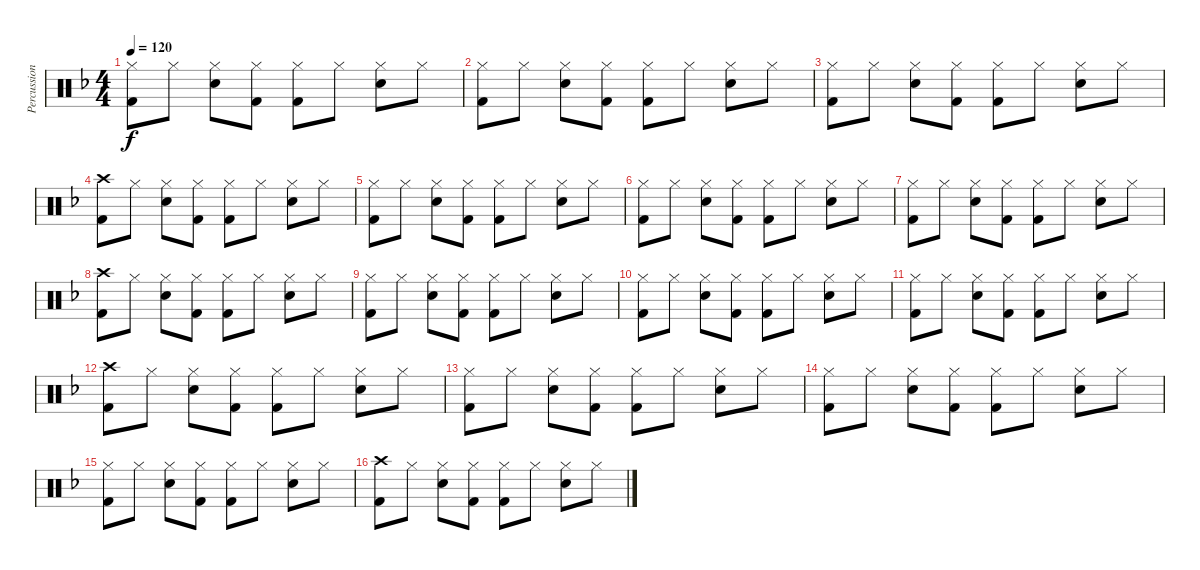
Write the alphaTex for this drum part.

\track ("Percussion" "Percussion") {instrument percussion}
\staff {score}
\articulation defaults
\ts (4 4)
\tempo 120
\clef neutral
\ks f
("Hi-Hat (closed)" "Kick (hit) 2").8{dy f} "Hi-Hat (closed)".8 ("Hi-Hat (closed)" "Snare (hit) 2").8 ("Hi-Hat (closed)" "Kick (hit) 2").8 ("Hi-Hat (closed)" "Kick (hit) 2").8 "Hi-Hat (closed)".8 ("Hi-Hat (closed)" "Snare (hit) 2").8 "Hi-Hat (closed)".8 |
("Hi-Hat (closed)" "Kick (hit) 2").8 "Hi-Hat (closed)".8 ("Hi-Hat (closed)" "Snare (hit) 2").8 ("Hi-Hat (closed)" "Kick (hit) 2").8 ("Hi-Hat (closed)" "Kick (hit) 2").8 "Hi-Hat (closed)".8 ("Hi-Hat (closed)" "Snare (hit) 2").8 "Hi-Hat (closed)".8 |
("Hi-Hat (closed)" "Kick (hit) 2").8 "Hi-Hat (closed)".8 ("Hi-Hat (closed)" "Snare (hit) 2").8 ("Hi-Hat (closed)" "Kick (hit) 2").8 ("Hi-Hat (closed)" "Kick (hit) 2").8 "Hi-Hat (closed)".8 ("Hi-Hat (closed)" "Snare (hit) 2").8 "Hi-Hat (closed)".8 |
("Crash high (hit)" "Kick (hit) 2").8 "Hi-Hat (closed)".8 ("Hi-Hat (closed)" "Snare (hit) 2").8 ("Hi-Hat (closed)" "Kick (hit) 2").8 ("Hi-Hat (closed)" "Kick (hit) 2").8 "Hi-Hat (closed)".8 ("Hi-Hat (closed)" "Snare (hit) 2").8 "Hi-Hat (closed)".8 |
("Hi-Hat (closed)" "Kick (hit) 2").8 "Hi-Hat (closed)".8 ("Hi-Hat (closed)" "Snare (hit) 2").8 ("Hi-Hat (closed)" "Kick (hit) 2").8 ("Hi-Hat (closed)" "Kick (hit) 2").8 "Hi-Hat (closed)".8 ("Hi-Hat (closed)" "Snare (hit) 2").8 "Hi-Hat (closed)".8 |
("Hi-Hat (closed)" "Kick (hit) 2").8 "Hi-Hat (closed)".8 ("Hi-Hat (closed)" "Snare (hit) 2").8 ("Hi-Hat (closed)" "Kick (hit) 2").8 ("Hi-Hat (closed)" "Kick (hit) 2").8 "Hi-Hat (closed)".8 ("Hi-Hat (closed)" "Snare (hit) 2").8 "Hi-Hat (closed)".8 |
("Hi-Hat (closed)" "Kick (hit) 2").8 "Hi-Hat (closed)".8 ("Hi-Hat (closed)" "Snare (hit) 2").8 ("Hi-Hat (closed)" "Kick (hit) 2").8 ("Hi-Hat (closed)" "Kick (hit) 2").8 "Hi-Hat (closed)".8 ("Hi-Hat (closed)" "Snare (hit) 2").8 "Hi-Hat (closed)".8 |
("Crash high (hit)" "Kick (hit) 2").8 "Hi-Hat (closed)".8 ("Hi-Hat (closed)" "Snare (hit) 2").8 ("Hi-Hat (closed)" "Kick (hit) 2").8 ("Hi-Hat (closed)" "Kick (hit) 2").8 "Hi-Hat (closed)".8 ("Hi-Hat (closed)" "Snare (hit) 2").8 "Hi-Hat (closed)".8 |
("Hi-Hat (closed)" "Kick (hit) 2").8 "Hi-Hat (closed)".8 ("Hi-Hat (closed)" "Snare (hit) 2").8 ("Hi-Hat (closed)" "Kick (hit) 2").8 ("Hi-Hat (closed)" "Kick (hit) 2").8 "Hi-Hat (closed)".8 ("Hi-Hat (closed)" "Snare (hit) 2").8 "Hi-Hat (closed)".8 |
("Hi-Hat (closed)" "Kick (hit) 2").8 "Hi-Hat (closed)".8 ("Hi-Hat (closed)" "Snare (hit) 2").8 ("Hi-Hat (closed)" "Kick (hit) 2").8 ("Hi-Hat (closed)" "Kick (hit) 2").8 "Hi-Hat (closed)".8 ("Hi-Hat (closed)" "Snare (hit) 2").8 "Hi-Hat (closed)".8 |
("Hi-Hat (closed)" "Kick (hit) 2").8 "Hi-Hat (closed)".8 ("Hi-Hat (closed)" "Snare (hit) 2").8 ("Hi-Hat (closed)" "Kick (hit) 2").8 ("Hi-Hat (closed)" "Kick (hit) 2").8 "Hi-Hat (closed)".8 ("Hi-Hat (closed)" "Snare (hit) 2").8 "Hi-Hat (closed)".8 |
("Crash high (hit)" "Kick (hit) 2").8 "Hi-Hat (closed)".8 ("Hi-Hat (closed)" "Snare (hit) 2").8 ("Hi-Hat (closed)" "Kick (hit) 2").8 ("Hi-Hat (closed)" "Kick (hit) 2").8 "Hi-Hat (closed)".8 ("Hi-Hat (closed)" "Snare (hit) 2").8 "Hi-Hat (closed)".8 |
("Hi-Hat (closed)" "Kick (hit) 2").8{volume 8} "Hi-Hat (closed)".8 ("Hi-Hat (closed)" "Snare (hit) 2").8 ("Hi-Hat (closed)" "Kick (hit) 2").8 ("Hi-Hat (closed)" "Kick (hit) 2").8 "Hi-Hat (closed)".8 ("Hi-Hat (closed)" "Snare (hit) 2").8 "Hi-Hat (closed)".8 |
("Hi-Hat (closed)" "Kick (hit) 2").8 "Hi-Hat (closed)".8 ("Hi-Hat (closed)" "Snare (hit) 2").8 ("Hi-Hat (closed)" "Kick (hit) 2").8 ("Hi-Hat (closed)" "Kick (hit) 2").8 "Hi-Hat (closed)".8 ("Hi-Hat (closed)" "Snare (hit) 2").8 "Hi-Hat (closed)".8 |
("Hi-Hat (closed)" "Kick (hit) 2").8 "Hi-Hat (closed)".8 ("Hi-Hat (closed)" "Snare (hit) 2").8 ("Hi-Hat (closed)" "Kick (hit) 2").8 ("Hi-Hat (closed)" "Kick (hit) 2").8 "Hi-Hat (closed)".8 ("Hi-Hat (closed)" "Snare (hit) 2").8 "Hi-Hat (closed)".8 |
("Crash high (hit)" "Kick (hit) 2").8{volume 0} "Hi-Hat (closed)".8 ("Hi-Hat (closed)" "Snare (hit) 2").8 ("Hi-Hat (closed)" "Kick (hit) 2").8 ("Hi-Hat (closed)" "Kick (hit) 2").8 "Hi-Hat (closed)".8 ("Hi-Hat (closed)" "Snare (hit) 2").8 "Hi-Hat (closed)".8
